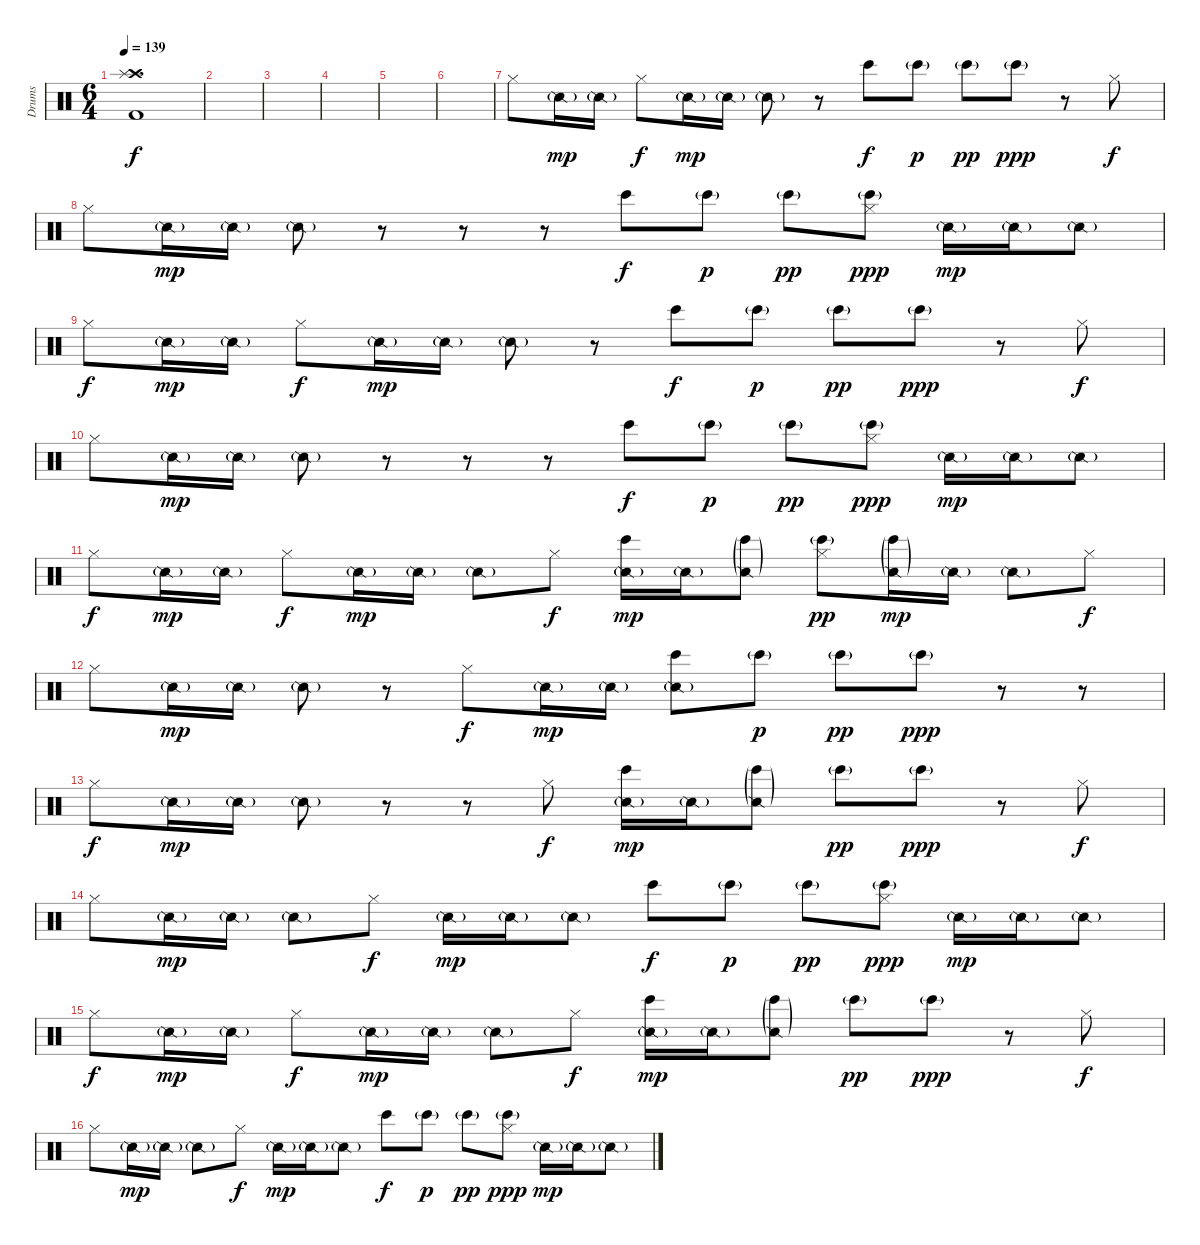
\track ("Drums" "Drums") {instrument percussion}
\staff {score}
\articulation defaults
\ts (6 4)
\section ("" "")
\tempo 139
\clef neutral
\ks c
("Crash high (hit)" "Splash (hit)" "Kick (hit) 2").1{d dy f} |
|
|
|
|
|
"Hi-Hat (closed)".8{volume 6} "Snare (side stick) 2"{g}.16{dy mp} "Snare (side stick) 2"{g}.16 "Hi-Hat (closed)".8{dy f} "Snare (side stick) 2"{g}.16{dy mp} "Snare (side stick) 2"{g}.16 "Snare (side stick) 2"{g}.8 r.8 "Bongo High (hit)".8{dy f} "Bongo High (hit)"{g}.8{dy p} "Bongo High (hit)"{g}.8{dy pp} "Bongo High (hit)"{g}.8{dy ppp} r.8 "Hi-Hat (closed)".8{dy f} |
"Hi-Hat (closed)".8 "Snare (side stick) 2"{g}.16{dy mp} "Snare (side stick) 2"{g}.16 "Snare (side stick) 2"{g}.8 r.8 r.8 r.8 "Bongo High (hit)".8{dy f} "Bongo High (hit)"{g}.8{dy p} "Bongo High (hit)"{g}.8{dy pp} ("Bongo High (hit)"{g} "Hi-Hat (closed)").8{dy ppp} "Snare (side stick) 2"{g}.16{dy mp} "Snare (side stick) 2"{g}.16 "Snare (side stick) 2"{g}.8 |
"Hi-Hat (closed)".8{dy f} "Snare (side stick) 2"{g}.16{dy mp} "Snare (side stick) 2"{g}.16 "Hi-Hat (closed)".8{dy f} "Snare (side stick) 2"{g}.16{dy mp} "Snare (side stick) 2"{g}.16 "Snare (side stick) 2"{g}.8 r.8 "Bongo High (hit)".8{dy f} "Bongo High (hit)"{g}.8{dy p} "Bongo High (hit)"{g}.8{dy pp} "Bongo High (hit)"{g}.8{dy ppp} r.8 "Hi-Hat (closed)".8{dy f} |
"Hi-Hat (closed)".8 "Snare (side stick) 2"{g}.16{dy mp} "Snare (side stick) 2"{g}.16 "Snare (side stick) 2"{g}.8 r.8 r.8 r.8 "Bongo High (hit)".8{dy f} "Bongo High (hit)"{g}.8{dy p} "Bongo High (hit)"{g}.8{dy pp} ("Bongo High (hit)"{g} "Hi-Hat (closed)").8{dy ppp} "Snare (side stick) 2"{g}.16{dy mp} "Snare (side stick) 2"{g}.16 "Snare (side stick) 2"{g}.8 |
"Hi-Hat (closed)".8{dy f volume 9} "Snare (side stick) 2"{g}.16{dy mp} "Snare (side stick) 2"{g}.16 "Hi-Hat (closed)".8{dy f} "Snare (side stick) 2"{g}.16{dy mp} "Snare (side stick) 2"{g}.16 "Snare (side stick) 2"{g}.8 "Hi-Hat (closed)".8{dy f} ("Bongo High (hit)" "Snare (side stick) 2"{g}).16{dy mp} "Snare (side stick) 2"{g}.16 ("Bongo High (hit)"{g} "Snare (side stick) 2"{g}).8 ("Bongo High (hit)"{g} "Hi-Hat (closed)").8{dy pp} ("Bongo High (hit)"{g} "Snare (side stick) 2"{g}).16{dy mp} "Snare (side stick) 2"{g}.16 "Snare (side stick) 2"{g}.8 "Hi-Hat (closed)".8{dy f} |
"Hi-Hat (closed)".8 "Snare (side stick) 2"{g}.16{dy mp} "Snare (side stick) 2"{g}.16 "Snare (side stick) 2"{g}.8 r.8 "Hi-Hat (closed)".8{dy f} "Snare (side stick) 2"{g}.16{dy mp} "Snare (side stick) 2"{g}.16 ("Bongo High (hit)" "Snare (side stick) 2"{g}).8 "Bongo High (hit)"{g}.8{dy p} "Bongo High (hit)"{g}.8{dy pp} "Bongo High (hit)"{g}.8{dy ppp} r.8 r.8 |
"Hi-Hat (closed)".8{dy f} "Snare (side stick) 2"{g}.16{dy mp} "Snare (side stick) 2"{g}.16 "Snare (side stick) 2"{g}.8 r.8 r.8 "Hi-Hat (closed)".8{dy f} ("Bongo High (hit)" "Snare (side stick) 2"{g}).16{dy mp} "Snare (side stick) 2"{g}.16 ("Bongo High (hit)"{g} "Snare (side stick) 2"{g}).8 "Bongo High (hit)"{g}.8{dy pp} "Bongo High (hit)"{g}.8{dy ppp} r.8 "Hi-Hat (closed)".8{dy f} |
"Hi-Hat (closed)".8 "Snare (side stick) 2"{g}.16{dy mp} "Snare (side stick) 2"{g}.16 "Snare (side stick) 2"{g}.8 "Hi-Hat (closed)".8{dy f} "Snare (side stick) 2"{g}.16{dy mp} "Snare (side stick) 2"{g}.16 "Snare (side stick) 2"{g}.8 "Bongo High (hit)".8{dy f} "Bongo High (hit)"{g}.8{dy p} "Bongo High (hit)"{g}.8{dy pp} ("Bongo High (hit)"{g} "Hi-Hat (closed)").8{dy ppp} "Snare (side stick) 2"{g}.16{dy mp} "Snare (side stick) 2"{g}.16 "Snare (side stick) 2"{g}.8 |
"Hi-Hat (closed)".8{dy f} "Snare (side stick) 2"{g}.16{dy mp} "Snare (side stick) 2"{g}.16 "Hi-Hat (closed)".8{dy f} "Snare (side stick) 2"{g}.16{dy mp} "Snare (side stick) 2"{g}.16 "Snare (side stick) 2"{g}.8 "Hi-Hat (closed)".8{dy f} ("Bongo High (hit)" "Snare (side stick) 2"{g}).16{dy mp} "Snare (side stick) 2"{g}.16 ("Bongo High (hit)"{g} "Snare (side stick) 2"{g}).8 "Bongo High (hit)"{g}.8{dy pp} "Bongo High (hit)"{g}.8{dy ppp} r.8 "Hi-Hat (closed)".8{dy f} |
"Hi-Hat (closed)".8 "Snare (side stick) 2"{g}.16{dy mp} "Snare (side stick) 2"{g}.16 "Snare (side stick) 2"{g}.8 "Hi-Hat (closed)".8{dy f} "Snare (side stick) 2"{g}.16{dy mp} "Snare (side stick) 2"{g}.16 "Snare (side stick) 2"{g}.8 "Bongo High (hit)".8{dy f} "Bongo High (hit)"{g}.8{dy p} "Bongo High (hit)"{g}.8{dy pp} ("Bongo High (hit)"{g} "Hi-Hat (closed)").8{dy ppp} "Snare (side stick) 2"{g}.16{dy mp} "Snare (side stick) 2"{g}.16 "Snare (side stick) 2"{g}.8
